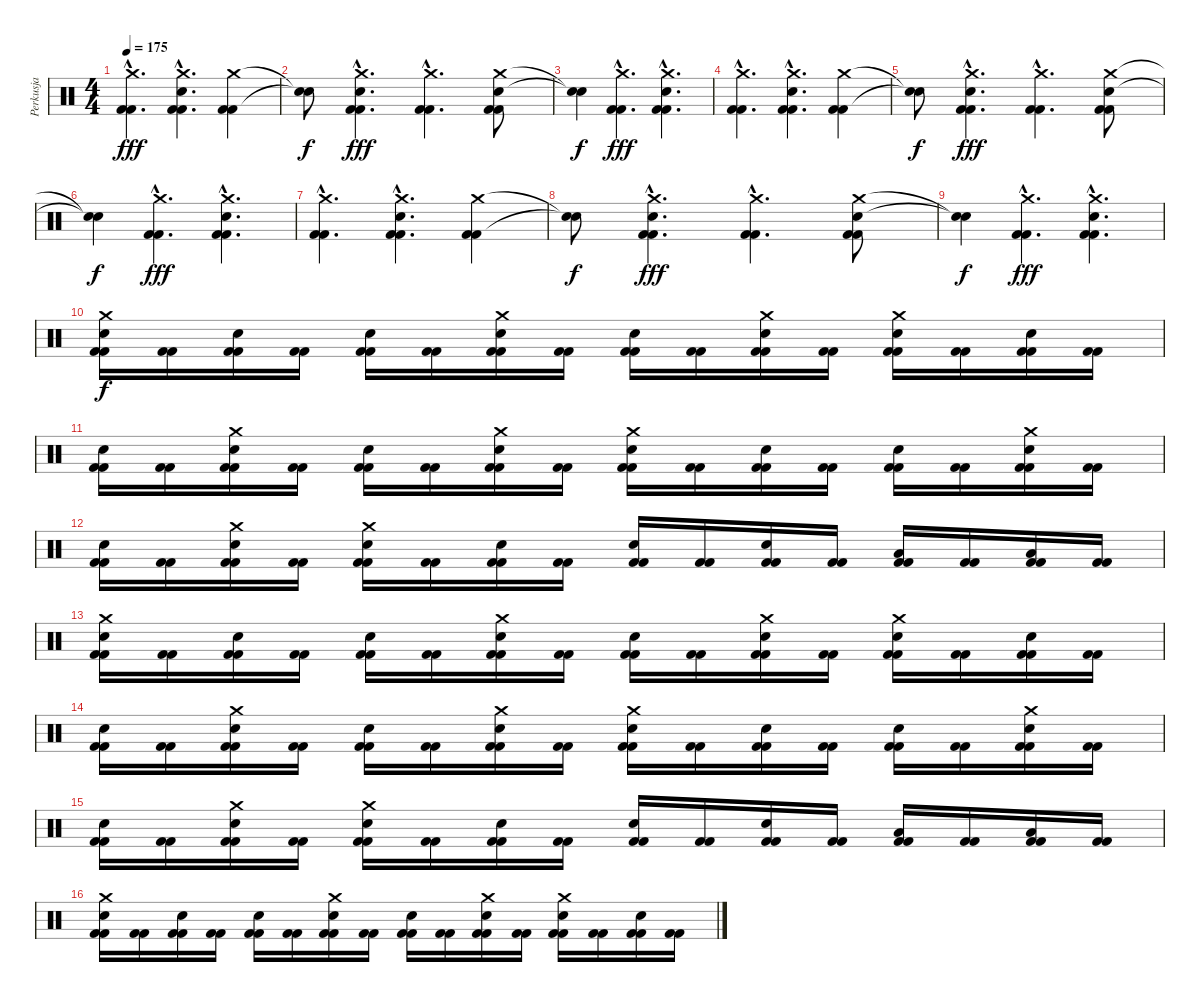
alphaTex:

\track ("Perkusja" "Perkusja") {instrument percussion}
\staff {score}
\articulation defaults
\ts (4 4)
\tempo 175
\clef neutral
\ks c
("Crash medium (hit)"{hac} "Kick (hit) 2"{tr (36 16) hac} "Kick (hit) 2"{hac}).4{d dy fff} ("Crash medium (hit)"{hac} "Snare (hit) 2"{hac} "Kick (hit) 2"{tr (36 16) hac} "Kick (hit) 2"{hac}).4{d} ("Crash medium (hit)" "Kick (hit) 2"{tr (36 16)} "Kick (hit) 2").4 |
("Snare (hit)"{t} "Snare (hit)"{t}).8{dy f} ("Crash medium (hit)"{hac} "Snare (hit) 2"{hac} "Kick (hit) 2"{tr (36 16) hac} "Kick (hit) 2"{hac}).4{d dy fff} ("Crash medium (hit)"{hac} "Kick (hit) 2"{tr (36 16) hac} "Kick (hit) 2"{hac}).4{d} ("Crash medium (hit)" "Snare (hit) 2" "Kick (hit) 2"{tr (36 16)} "Kick (hit) 2").8 |
("Snare (hit)"{t} "Snare (hit)"{t}).4{dy f} ("Crash medium (hit)"{hac} "Kick (hit) 2"{tr (36 16) hac} "Kick (hit) 2"{hac}).4{d dy fff} ("Crash medium (hit)"{hac} "Snare (hit) 2"{hac} "Kick (hit) 2"{tr (36 16) hac} "Kick (hit) 2"{hac}).4{d} |
("Crash medium (hit)"{hac} "Kick (hit) 2"{tr (36 16) hac} "Kick (hit) 2"{hac}).4{d} ("Crash medium (hit)"{hac} "Snare (hit) 2"{hac} "Kick (hit) 2"{tr (36 16) hac} "Kick (hit) 2"{hac}).4{d} ("Crash medium (hit)" "Kick (hit) 2"{tr (36 16)} "Kick (hit) 2").4 |
("Snare (hit)"{t} "Snare (hit)"{t}).8{dy f} ("Crash medium (hit)"{hac} "Snare (hit) 2"{hac} "Kick (hit) 2"{tr (36 16) hac} "Kick (hit) 2"{hac}).4{d dy fff} ("Crash medium (hit)"{hac} "Kick (hit) 2"{tr (36 16) hac} "Kick (hit) 2"{hac}).4{d} ("Crash medium (hit)" "Snare (hit) 2" "Kick (hit) 2"{tr (36 16)} "Kick (hit) 2").8 |
("Snare (hit)"{t} "Snare (hit)"{t}).4{dy f} ("Crash medium (hit)"{hac} "Kick (hit) 2"{tr (36 16) hac} "Kick (hit) 2"{hac}).4{d dy fff} ("Crash medium (hit)"{hac} "Snare (hit) 2"{hac} "Kick (hit) 2"{tr (36 16) hac} "Kick (hit) 2"{hac}).4{d} |
("Crash medium (hit)"{hac} "Kick (hit) 2"{tr (36 16) hac} "Kick (hit) 2"{hac}).4{d} ("Crash medium (hit)"{hac} "Snare (hit) 2"{hac} "Kick (hit) 2"{tr (36 16) hac} "Kick (hit) 2"{hac}).4{d} ("Crash medium (hit)" "Kick (hit) 2"{tr (36 16)} "Kick (hit) 2").4 |
("Snare (hit)"{t} "Snare (hit)"{t}).8{dy f} ("Crash medium (hit)"{hac} "Snare (hit) 2"{hac} "Kick (hit) 2"{tr (36 16) hac} "Kick (hit) 2"{hac}).4{d dy fff} ("Crash medium (hit)"{hac} "Kick (hit) 2"{tr (36 16) hac} "Kick (hit) 2"{hac}).4{d} ("Crash medium (hit)" "Snare (hit) 2" "Kick (hit) 2"{tr (36 16)} "Kick (hit) 2").8 |
("Snare (hit)"{t} "Snare (hit)"{t}).4{dy f} ("Crash medium (hit)"{hac} "Kick (hit) 2"{tr (36 16) hac} "Kick (hit) 2"{hac}).4{d dy fff} ("Crash medium (hit)"{hac} "Snare (hit) 2"{hac} "Kick (hit) 2"{tr (36 16) hac} "Kick (hit) 2"{hac}).4{d} |
("Crash medium (hit)" "Snare (hit) 2" "Kick (hit) 2" "Kick (hit) 2").16{dy f} ("Kick (hit) 2" "Kick (hit) 2").16 ("Snare (hit) 2" "Kick (hit) 2" "Kick (hit) 2").16 ("Kick (hit) 2" "Kick (hit) 2").16 ("Snare (hit) 2" "Kick (hit) 2" "Kick (hit) 2").16 ("Kick (hit) 2" "Kick (hit) 2").16 ("Crash medium (hit)" "Snare (hit) 2" "Kick (hit) 2" "Kick (hit) 2").16 ("Kick (hit) 2" "Kick (hit) 2").16 ("Snare (hit) 2" "Kick (hit) 2" "Kick (hit) 2").16 ("Kick (hit) 2" "Kick (hit) 2").16 ("Crash medium (hit)" "Snare (hit) 2" "Kick (hit) 2" "Kick (hit) 2").16 ("Kick (hit) 2" "Kick (hit) 2").16 ("Crash medium (hit)" "Snare (hit) 2" "Kick (hit) 2" "Kick (hit) 2").16 ("Kick (hit) 2" "Kick (hit) 2").16 ("Snare (hit) 2" "Kick (hit) 2" "Kick (hit) 2").16 ("Kick (hit) 2" "Kick (hit) 2").16 |
("Snare (hit) 2" "Kick (hit) 2" "Kick (hit) 2").16 ("Kick (hit) 2" "Kick (hit) 2").16 ("Crash medium (hit)" "Snare (hit) 2" "Kick (hit) 2" "Kick (hit) 2").16 ("Kick (hit) 2" "Kick (hit) 2").16 ("Snare (hit) 2" "Kick (hit) 2" "Kick (hit) 2").16 ("Kick (hit) 2" "Kick (hit) 2").16 ("Crash medium (hit)" "Snare (hit) 2" "Kick (hit) 2" "Kick (hit) 2").16 ("Kick (hit) 2" "Kick (hit) 2").16 ("Crash medium (hit)" "Snare (hit) 2" "Kick (hit) 2" "Kick (hit) 2").16 ("Kick (hit) 2" "Kick (hit) 2").16 ("Snare (hit) 2" "Kick (hit) 2" "Kick (hit) 2").16 ("Kick (hit) 2" "Kick (hit) 2").16 ("Snare (hit) 2" "Kick (hit) 2" "Kick (hit) 2").16 ("Kick (hit) 2" "Kick (hit) 2").16 ("Crash medium (hit)" "Snare (hit) 2" "Kick (hit) 2" "Kick (hit) 2").16 ("Kick (hit) 2" "Kick (hit) 2").16 |
("Snare (hit) 2" "Kick (hit) 2" "Kick (hit) 2").16 ("Kick (hit) 2" "Kick (hit) 2").16 ("Crash medium (hit)" "Snare (hit) 2" "Kick (hit) 2" "Kick (hit) 2").16 ("Kick (hit) 2" "Kick (hit) 2").16 ("Crash medium (hit)" "Snare (hit) 2" "Kick (hit) 2" "Kick (hit) 2").16 ("Kick (hit) 2" "Kick (hit) 2").16 ("Snare (hit) 2" "Kick (hit) 2" "Kick (hit) 2").16 ("Kick (hit) 2" "Kick (hit) 2").16 ("Electric Snare (hit)" "Kick (hit) 2" "Kick (hit) 2").16 ("Kick (hit) 2" "Kick (hit) 2").16 ("Electric Snare (hit)" "Kick (hit) 2" "Kick (hit) 2").16 ("Kick (hit) 2" "Kick (hit) 2").16 ("Low Tom (hit)" "Kick (hit) 2" "Kick (hit) 2").16 ("Kick (hit) 2" "Kick (hit) 2").16 ("Low Tom (hit)" "Kick (hit) 2" "Kick (hit) 2").16 ("Kick (hit) 2" "Kick (hit) 2").16 |
("Crash medium (hit)" "Snare (hit) 2" "Kick (hit) 2" "Kick (hit) 2").16 ("Kick (hit) 2" "Kick (hit) 2").16 ("Snare (hit) 2" "Kick (hit) 2" "Kick (hit) 2").16 ("Kick (hit) 2" "Kick (hit) 2").16 ("Snare (hit) 2" "Kick (hit) 2" "Kick (hit) 2").16 ("Kick (hit) 2" "Kick (hit) 2").16 ("Crash medium (hit)" "Snare (hit) 2" "Kick (hit) 2" "Kick (hit) 2").16 ("Kick (hit) 2" "Kick (hit) 2").16 ("Snare (hit) 2" "Kick (hit) 2" "Kick (hit) 2").16 ("Kick (hit) 2" "Kick (hit) 2").16 ("Crash medium (hit)" "Snare (hit) 2" "Kick (hit) 2" "Kick (hit) 2").16 ("Kick (hit) 2" "Kick (hit) 2").16 ("Crash medium (hit)" "Snare (hit) 2" "Kick (hit) 2" "Kick (hit) 2").16 ("Kick (hit) 2" "Kick (hit) 2").16 ("Snare (hit) 2" "Kick (hit) 2" "Kick (hit) 2").16 ("Kick (hit) 2" "Kick (hit) 2").16 |
("Snare (hit) 2" "Kick (hit) 2" "Kick (hit) 2").16 ("Kick (hit) 2" "Kick (hit) 2").16 ("Crash medium (hit)" "Snare (hit) 2" "Kick (hit) 2" "Kick (hit) 2").16 ("Kick (hit) 2" "Kick (hit) 2").16 ("Snare (hit) 2" "Kick (hit) 2" "Kick (hit) 2").16 ("Kick (hit) 2" "Kick (hit) 2").16 ("Crash medium (hit)" "Snare (hit) 2" "Kick (hit) 2" "Kick (hit) 2").16 ("Kick (hit) 2" "Kick (hit) 2").16 ("Crash medium (hit)" "Snare (hit) 2" "Kick (hit) 2" "Kick (hit) 2").16 ("Kick (hit) 2" "Kick (hit) 2").16 ("Snare (hit) 2" "Kick (hit) 2" "Kick (hit) 2").16 ("Kick (hit) 2" "Kick (hit) 2").16 ("Snare (hit) 2" "Kick (hit) 2" "Kick (hit) 2").16 ("Kick (hit) 2" "Kick (hit) 2").16 ("Crash medium (hit)" "Snare (hit) 2" "Kick (hit) 2" "Kick (hit) 2").16 ("Kick (hit) 2" "Kick (hit) 2").16 |
("Snare (hit) 2" "Kick (hit) 2" "Kick (hit) 2").16 ("Kick (hit) 2" "Kick (hit) 2").16 ("Crash medium (hit)" "Snare (hit) 2" "Kick (hit) 2" "Kick (hit) 2").16 ("Kick (hit) 2" "Kick (hit) 2").16 ("Crash medium (hit)" "Snare (hit) 2" "Kick (hit) 2" "Kick (hit) 2").16 ("Kick (hit) 2" "Kick (hit) 2").16 ("Snare (hit) 2" "Kick (hit) 2" "Kick (hit) 2").16 ("Kick (hit) 2" "Kick (hit) 2").16 ("Electric Snare (hit)" "Kick (hit) 2" "Kick (hit) 2").16 ("Kick (hit) 2" "Kick (hit) 2").16 ("Electric Snare (hit)" "Kick (hit) 2" "Kick (hit) 2").16 ("Kick (hit) 2" "Kick (hit) 2").16 ("Low Tom (hit)" "Kick (hit) 2" "Kick (hit) 2").16 ("Kick (hit) 2" "Kick (hit) 2").16 ("Low Tom (hit)" "Kick (hit) 2" "Kick (hit) 2").16 ("Kick (hit) 2" "Kick (hit) 2").16 |
("Crash medium (hit)" "Snare (hit) 2" "Kick (hit) 2" "Kick (hit) 2").16 ("Kick (hit) 2" "Kick (hit) 2").16 ("Snare (hit) 2" "Kick (hit) 2" "Kick (hit) 2").16 ("Kick (hit) 2" "Kick (hit) 2").16 ("Snare (hit) 2" "Kick (hit) 2" "Kick (hit) 2").16 ("Kick (hit) 2" "Kick (hit) 2").16 ("Crash medium (hit)" "Snare (hit) 2" "Kick (hit) 2" "Kick (hit) 2").16 ("Kick (hit) 2" "Kick (hit) 2").16 ("Snare (hit) 2" "Kick (hit) 2" "Kick (hit) 2").16 ("Kick (hit) 2" "Kick (hit) 2").16 ("Crash medium (hit)" "Snare (hit) 2" "Kick (hit) 2" "Kick (hit) 2").16 ("Kick (hit) 2" "Kick (hit) 2").16 ("Crash medium (hit)" "Snare (hit) 2" "Kick (hit) 2" "Kick (hit) 2").16 ("Kick (hit) 2" "Kick (hit) 2").16 ("Snare (hit) 2" "Kick (hit) 2" "Kick (hit) 2").16 ("Kick (hit) 2" "Kick (hit) 2").16
